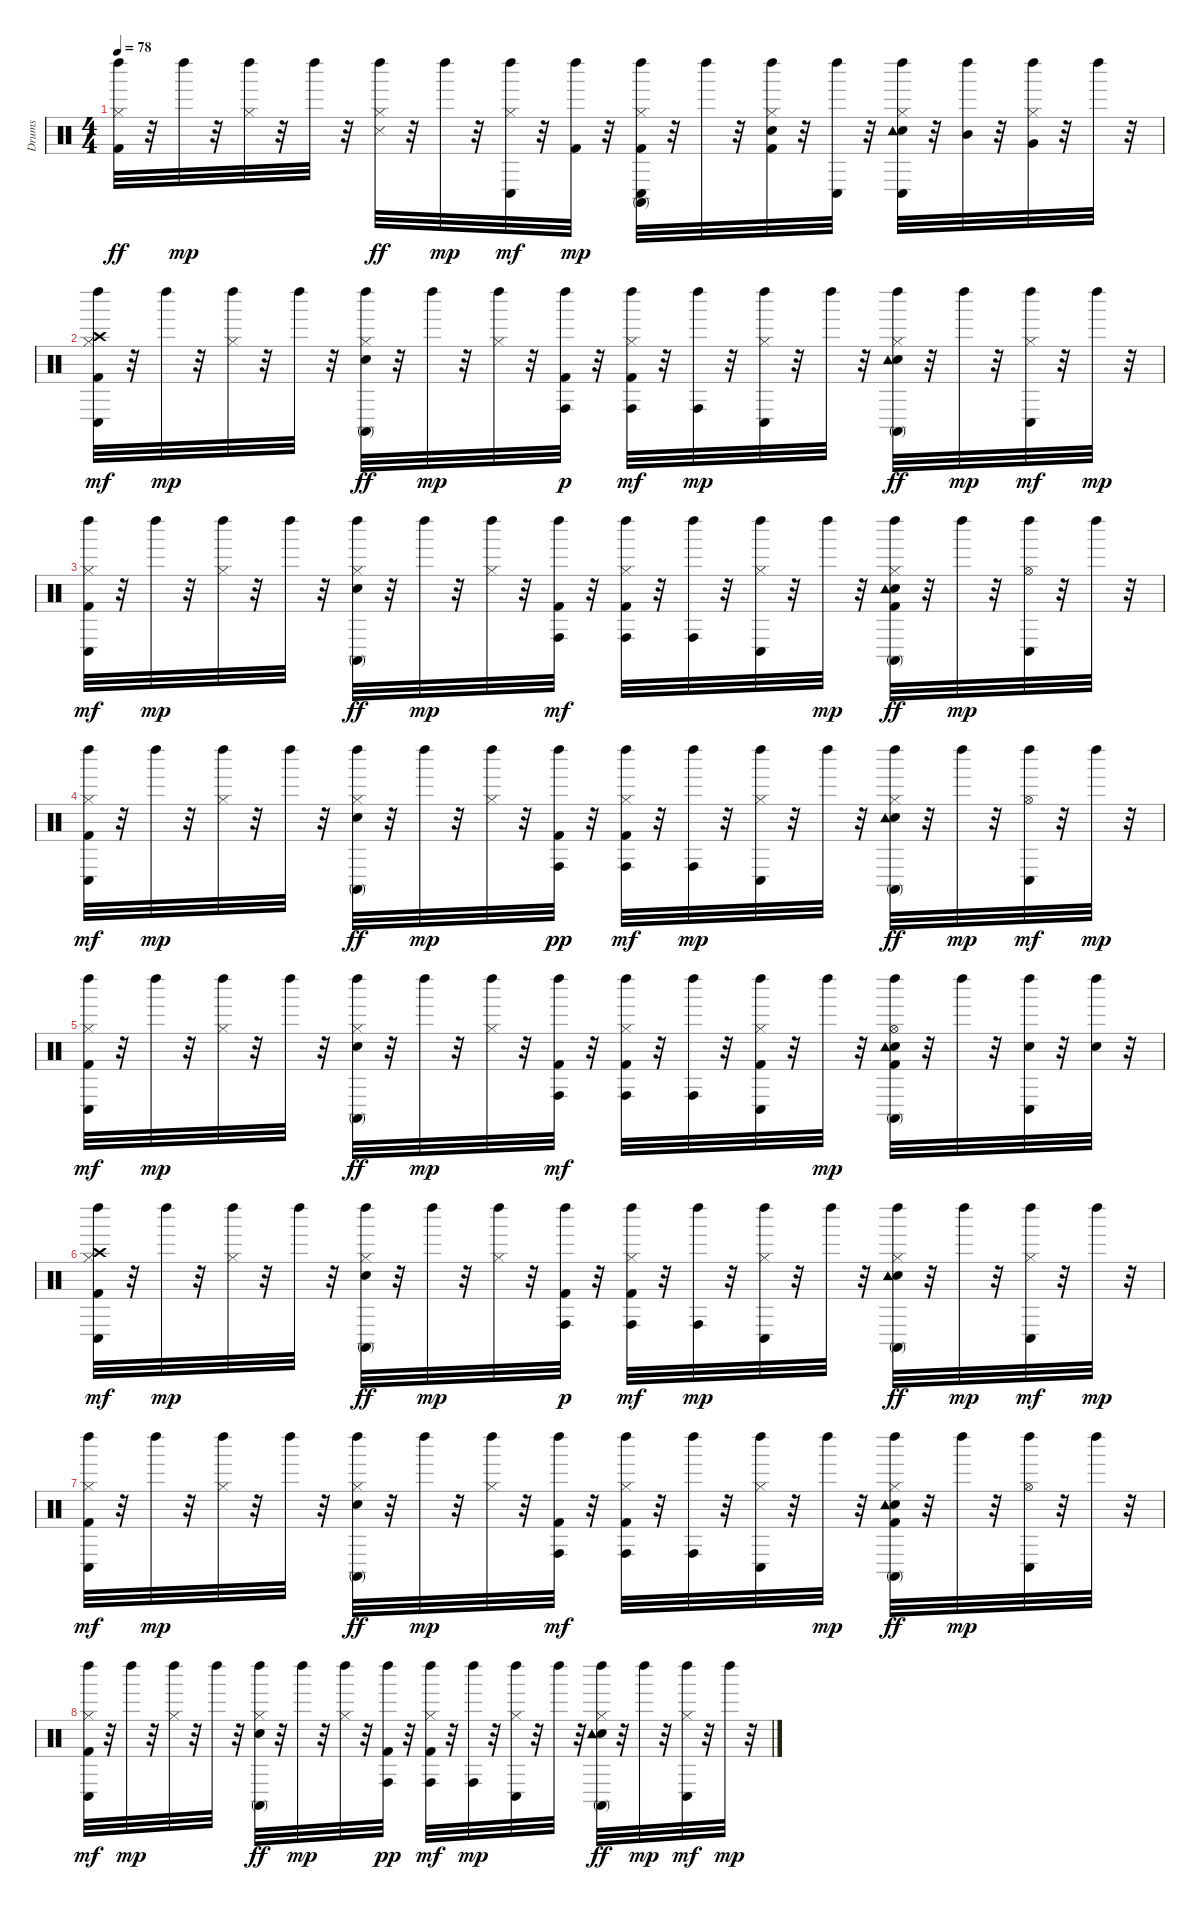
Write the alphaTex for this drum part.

\track ("Drums               " "Drums     ") {instrument percussion}
\staff {score}
\articulation defaults
\ts (4 4)
\tempo 78
\clef neutral
\ks c
("Kick (hit) 2" "Hi-Hat (closed)" "Left Maraca (hit)").32{dy ff} r.32 "Left Maraca (hit)".32{dy mp} r.32 ("Hi-Hat (closed)" "Left Maraca (hit)").32 r.32 "Left Maraca (hit)".32 r.32 ("Hi-Hat (closed)" "Left Maraca (hit)" "Snare (side stick) 3").32{dy ff} r.32 "Left Maraca (hit)".32{dy mp} r.32 ("Hi-Hat (closed)" "Left Maraca (hit)" "Conga low (hit)").32{dy mf} r.32 ("Kick (hit) 2" "Left Maraca (hit)").32{dy mp} r.32 ("Kick (hit) 2" "Hi-Hat (closed)" "Left Maraca (hit)" "Conga high (mute)" "Conga low (hit)").32 r.32 "Left Maraca (hit)".32 r.32 ("Kick (hit) 2" "Snare (hit) 2" "Hi-Hat (closed)" "Left Maraca (hit)").32 r.32 ("Left Maraca (hit)" "Conga low (hit)").32 r.32 ("Snare (hit) 2" "Hi-Hat (closed)" "Left Maraca (hit)" "Tambourine (hit)" "Conga low (hit)").32 r.32 ("Left Maraca (hit)" "Mid Tom (hit)").32 r.32 ("Hi-Hat (closed)" "Left Maraca (hit)" "Very Low Tom (hit)").32 r.32 "Left Maraca (hit)".32 r.32 |
("Kick (hit) 2" "Hi-Hat (closed)" "Left Maraca (hit)" "Crash high (hit)" "Conga low (hit)").32{dy mf} r.32 "Left Maraca (hit)".32{dy mp} r.32 ("Hi-Hat (closed)" "Left Maraca (hit)").32 r.32 "Left Maraca (hit)".32 r.32 ("Snare (hit) 2" "Hi-Hat (closed)" "Left Maraca (hit)" "Conga high (mute)").32{dy ff} r.32 "Left Maraca (hit)".32{dy mp} r.32 ("Hi-Hat (closed)" "Left Maraca (hit)").32 r.32 ("Kick (hit) 2" "Left Maraca (hit)" "Conga high (hit)").32{dy p} r.32 ("Kick (hit) 2" "Hi-Hat (closed)" "Left Maraca (hit)" "Conga high (hit)").32{dy mf} r.32 ("Left Maraca (hit)" "Conga high (hit)").32{dy mp} r.32 ("Hi-Hat (closed)" "Left Maraca (hit)" "Conga low (hit)").32 r.32 "Left Maraca (hit)".32 r.32 ("Snare (hit) 2" "Hi-Hat (closed)" "Left Maraca (hit)" "Conga high (mute)" "Tambourine (hit)").32{dy ff} r.32 "Left Maraca (hit)".32{dy mp} r.32 ("Hi-Hat (closed)" "Left Maraca (hit)" "Conga low (hit)").32{dy mf} r.32 "Left Maraca (hit)".32{dy mp} r.32 |
("Kick (hit) 2" "Hi-Hat (closed)" "Left Maraca (hit)" "Conga low (hit)").32{dy mf} r.32 "Left Maraca (hit)".32{dy mp} r.32 ("Hi-Hat (closed)" "Left Maraca (hit)").32 r.32 "Left Maraca (hit)".32 r.32 ("Snare (hit) 2" "Hi-Hat (closed)" "Left Maraca (hit)" "Conga high (mute)").32{dy ff} r.32 "Left Maraca (hit)".32{dy mp} r.32 ("Hi-Hat (closed)" "Left Maraca (hit)").32 r.32 ("Kick (hit) 2" "Left Maraca (hit)" "Conga high (hit)").32{dy mf} r.32 ("Kick (hit) 2" "Hi-Hat (closed)" "Left Maraca (hit)" "Conga high (hit)").32 r.32 ("Left Maraca (hit)" "Conga high (hit)").32 r.32 ("Hi-Hat (closed)" "Left Maraca (hit)" "Conga low (hit)").32 r.32 "Left Maraca (hit)".32{dy mp} r.32 ("Kick (hit) 2" "Snare (hit) 2" "Hi-Hat (closed)" "Left Maraca (hit)" "Conga high (mute)" "Tambourine (hit)").32{dy ff} r.32 "Left Maraca (hit)".32{dy mp} r.32 ("Hi-Hat (open)" "Left Maraca (hit)" "Conga low (hit)").32 r.32 "Left Maraca (hit)".32 r.32 |
("Kick (hit) 2" "Hi-Hat (closed)" "Left Maraca (hit)" "Conga low (hit)").32{dy mf} r.32 "Left Maraca (hit)".32{dy mp} r.32 ("Hi-Hat (closed)" "Left Maraca (hit)").32 r.32 "Left Maraca (hit)".32 r.32 ("Snare (hit) 2" "Hi-Hat (closed)" "Left Maraca (hit)" "Conga high (mute)").32{dy ff} r.32 "Left Maraca (hit)".32{dy mp} r.32 ("Hi-Hat (closed)" "Left Maraca (hit)").32 r.32 ("Kick (hit) 2" "Left Maraca (hit)" "Conga high (hit)").32{dy pp} r.32 ("Kick (hit) 2" "Hi-Hat (closed)" "Left Maraca (hit)" "Conga high (hit)").32{dy mf} r.32 ("Left Maraca (hit)" "Conga high (hit)").32{dy mp} r.32 ("Hi-Hat (closed)" "Left Maraca (hit)" "Conga low (hit)").32 r.32 "Left Maraca (hit)".32 r.32 ("Snare (hit) 2" "Hi-Hat (closed)" "Left Maraca (hit)" "Conga high (mute)" "Tambourine (hit)").32{dy ff} r.32 "Left Maraca (hit)".32{dy mp} r.32 ("Hi-Hat (open)" "Left Maraca (hit)" "Conga low (hit)").32{dy mf} r.32 "Left Maraca (hit)".32{dy mp} r.32 |
("Kick (hit) 2" "Hi-Hat (closed)" "Left Maraca (hit)" "Conga low (hit)").32{dy mf} r.32 "Left Maraca (hit)".32{dy mp} r.32 ("Hi-Hat (closed)" "Left Maraca (hit)").32 r.32 "Left Maraca (hit)".32 r.32 ("Snare (hit) 2" "Hi-Hat (closed)" "Left Maraca (hit)" "Conga high (mute)").32{dy ff} r.32 "Left Maraca (hit)".32{dy mp} r.32 ("Hi-Hat (closed)" "Left Maraca (hit)").32 r.32 ("Kick (hit) 2" "Left Maraca (hit)" "Conga high (hit)").32{dy mf} r.32 ("Kick (hit) 2" "Hi-Hat (closed)" "Left Maraca (hit)" "Conga high (hit)").32 r.32 ("Left Maraca (hit)" "Conga high (hit)").32 r.32 ("Kick (hit) 2" "Hi-Hat (closed)" "Left Maraca (hit)" "Conga low (hit)").32 r.32 "Left Maraca (hit)".32{dy mp} r.32 ("Kick (hit) 2" "Snare (hit) 2" "Hi-Hat (open)" "Left Maraca (hit)" "Conga high (mute)" "Tambourine (hit)").32 r.32 "Left Maraca (hit)".32 r.32 ("Snare (hit) 2" "Left Maraca (hit)" "Conga low (hit)").32 r.32 ("Snare (hit) 2" "Left Maraca (hit)").32 r.32 |
("Kick (hit) 2" "Hi-Hat (closed)" "Left Maraca (hit)" "Crash high (hit)" "Conga low (hit)").32{dy mf} r.32 "Left Maraca (hit)".32{dy mp} r.32 ("Hi-Hat (closed)" "Left Maraca (hit)").32 r.32 "Left Maraca (hit)".32 r.32 ("Snare (hit) 2" "Hi-Hat (closed)" "Left Maraca (hit)" "Conga high (mute)").32{dy ff} r.32 "Left Maraca (hit)".32{dy mp} r.32 ("Hi-Hat (closed)" "Left Maraca (hit)").32 r.32 ("Kick (hit) 2" "Left Maraca (hit)" "Conga high (hit)").32{dy p} r.32 ("Kick (hit) 2" "Hi-Hat (closed)" "Left Maraca (hit)" "Conga high (hit)").32{dy mf} r.32 ("Left Maraca (hit)" "Conga high (hit)").32{dy mp} r.32 ("Hi-Hat (closed)" "Left Maraca (hit)" "Conga low (hit)").32 r.32 "Left Maraca (hit)".32 r.32 ("Snare (hit) 2" "Hi-Hat (closed)" "Left Maraca (hit)" "Conga high (mute)" "Tambourine (hit)").32{dy ff} r.32 "Left Maraca (hit)".32{dy mp} r.32 ("Hi-Hat (closed)" "Left Maraca (hit)" "Conga low (hit)").32{dy mf} r.32 "Left Maraca (hit)".32{dy mp} r.32 |
("Kick (hit) 2" "Hi-Hat (closed)" "Left Maraca (hit)" "Conga low (hit)").32{dy mf} r.32 "Left Maraca (hit)".32{dy mp} r.32 ("Hi-Hat (closed)" "Left Maraca (hit)").32 r.32 "Left Maraca (hit)".32 r.32 ("Snare (hit) 2" "Hi-Hat (closed)" "Left Maraca (hit)" "Conga high (mute)").32{dy ff} r.32 "Left Maraca (hit)".32{dy mp} r.32 ("Hi-Hat (closed)" "Left Maraca (hit)").32 r.32 ("Kick (hit) 2" "Left Maraca (hit)" "Conga high (hit)").32{dy mf} r.32 ("Kick (hit) 2" "Hi-Hat (closed)" "Left Maraca (hit)" "Conga high (hit)").32 r.32 ("Left Maraca (hit)" "Conga high (hit)").32 r.32 ("Hi-Hat (closed)" "Left Maraca (hit)" "Conga low (hit)").32 r.32 "Left Maraca (hit)".32{dy mp} r.32 ("Kick (hit) 2" "Snare (hit) 2" "Hi-Hat (closed)" "Left Maraca (hit)" "Conga high (mute)" "Tambourine (hit)").32{dy ff} r.32 "Left Maraca (hit)".32{dy mp} r.32 ("Hi-Hat (open)" "Left Maraca (hit)" "Conga low (hit)").32 r.32 "Left Maraca (hit)".32 r.32 |
("Kick (hit) 2" "Hi-Hat (closed)" "Left Maraca (hit)" "Conga low (hit)").32{dy mf} r.32 "Left Maraca (hit)".32{dy mp} r.32 ("Hi-Hat (closed)" "Left Maraca (hit)").32 r.32 "Left Maraca (hit)".32 r.32 ("Snare (hit) 2" "Hi-Hat (closed)" "Left Maraca (hit)" "Conga high (mute)").32{dy ff} r.32 "Left Maraca (hit)".32{dy mp} r.32 ("Hi-Hat (closed)" "Left Maraca (hit)").32 r.32 ("Kick (hit) 2" "Left Maraca (hit)" "Conga high (hit)").32{dy pp} r.32 ("Kick (hit) 2" "Hi-Hat (closed)" "Left Maraca (hit)" "Conga high (hit)").32{dy mf} r.32 ("Left Maraca (hit)" "Conga high (hit)").32{dy mp} r.32 ("Hi-Hat (closed)" "Left Maraca (hit)" "Conga low (hit)").32 r.32 "Left Maraca (hit)".32 r.32 ("Snare (hit) 2" "Hi-Hat (closed)" "Left Maraca (hit)" "Conga high (mute)" "Tambourine (hit)").32{dy ff} r.32 "Left Maraca (hit)".32{dy mp} r.32 ("Hi-Hat (closed)" "Left Maraca (hit)" "Conga low (hit)").32{dy mf} r.32 "Left Maraca (hit)".32{dy mp} r.32
